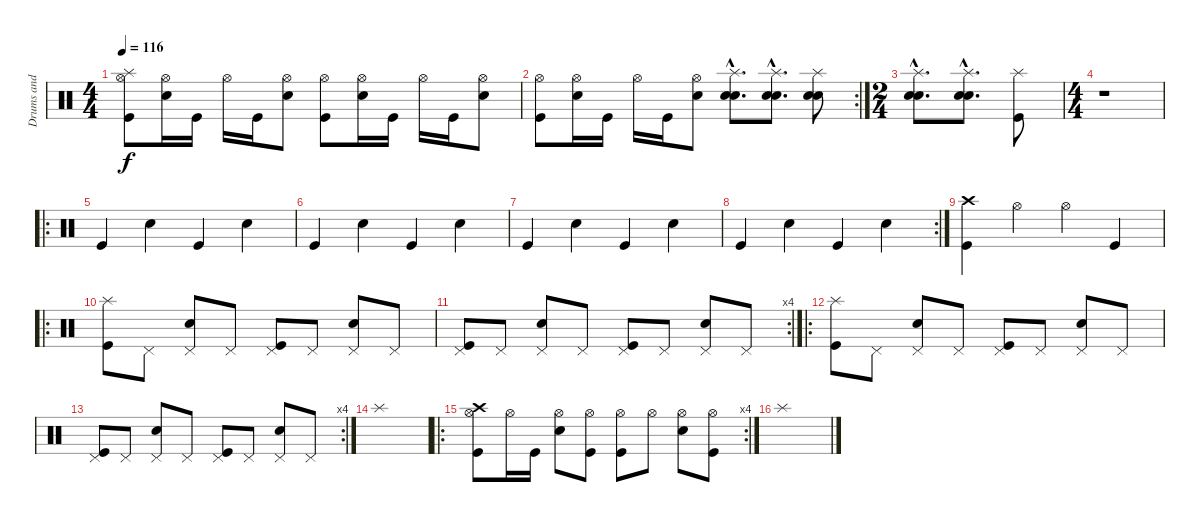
\track ("Drums and Percussions" "Drums and ") {instrument percussion}
\staff {score}
\articulation defaults
\ts (4 4)
\tempo 116
\clef neutral
\ks c
("Splash (hit)" "Hi-Hat (open)" "Kick (hit)").8{dy f} ("Electric Snare (hit)" "Hi-Hat (open)").16 "Kick (hit)".16 "Hi-Hat (open)".16 "Kick (hit)".16 ("Electric Snare (hit)" "Hi-Hat (open)").8 ("Hi-Hat (open)" "Kick (hit)").8 ("Electric Snare (hit)" "Hi-Hat (open)").16 "Kick (hit)".16 "Hi-Hat (open)".16 "Kick (hit)".16 ("Electric Snare (hit)" "Hi-Hat (open)").8 |
\rc 2
("Hi-Hat (open)" "Kick (hit)").8 ("Electric Snare (hit)" "Hi-Hat (open)").16 "Kick (hit)".16 "Hi-Hat (open)".16 "Kick (hit)".16 ("Electric Snare (hit)" "Hi-Hat (open)").8 ("Splash (hit)"{hac} "Electric Snare (hit)"{hac} "Snare (hit) 2"{hac}).8{d} ("Splash (hit)"{hac} "Electric Snare (hit)"{hac} "Snare (hit) 2"{hac}).8{d} ("Splash (hit)" "Electric Snare (hit)" "Snare (hit) 2").8 |
\ts (2 4)
("Splash (hit)"{hac} "Electric Snare (hit)"{hac} "Snare (hit) 2"{hac}).8{d} ("Splash (hit)"{hac} "Electric Snare (hit)"{hac} "Snare (hit) 2"{hac}).8{d} ("Splash (hit)" "Kick (hit)").8 |
\ts (4 4)
r.1 |
\ro "Kick (hit)".4 "Electric Snare (hit)".4 "Kick (hit)".4 "Electric Snare (hit)".4
|
"Kick (hit)".4 "Electric Snare (hit)".4 "Kick (hit)".4 "Electric Snare (hit)".4 |
"Kick (hit)".4 "Electric Snare (hit)".4 "Kick (hit)".4 "Electric Snare (hit)".4 |
\rc 2 "Kick (hit)".4 "Electric Snare (hit)".4 "Kick (hit)".4 "Electric Snare (hit)".4
|
("Crash high (hit)" "Kick (hit)").4 "Hi-Hat (open)".4 "Hi-Hat (open)".4 "Kick (hit)".4 |
\ro
("Splash (hit)" "Kick (hit)").8 "Pedal Hi-Hat (hit)".8 ("Electric Snare (hit)" "Pedal Hi-Hat (hit)").8 "Pedal Hi-Hat (hit)".8 ("Pedal Hi-Hat (hit)" "Kick (hit)").8 "Pedal Hi-Hat (hit)".8 ("Electric Snare (hit)" "Pedal Hi-Hat (hit)").8 "Pedal Hi-Hat (hit)".8 |
\rc 4
("Pedal Hi-Hat (hit)" "Kick (hit)").8 "Pedal Hi-Hat (hit)".8 ("Electric Snare (hit)" "Pedal Hi-Hat (hit)").8 "Pedal Hi-Hat (hit)".8 ("Pedal Hi-Hat (hit)" "Kick (hit)").8 "Pedal Hi-Hat (hit)".8 ("Electric Snare (hit)" "Pedal Hi-Hat (hit)").8 "Pedal Hi-Hat (hit)".8 |
\ro
("Splash (hit)" "Kick (hit)").8 "Pedal Hi-Hat (hit)".8 ("Electric Snare (hit)" "Pedal Hi-Hat (hit)").8 "Pedal Hi-Hat (hit)".8 ("Pedal Hi-Hat (hit)" "Kick (hit)").8 "Pedal Hi-Hat (hit)".8 ("Electric Snare (hit)" "Pedal Hi-Hat (hit)").8 "Pedal Hi-Hat (hit)".8 |
\rc 4
("Pedal Hi-Hat (hit)" "Kick (hit)").8 "Pedal Hi-Hat (hit)".8 ("Electric Snare (hit)" "Pedal Hi-Hat (hit)").8 "Pedal Hi-Hat (hit)".8 ("Pedal Hi-Hat (hit)" "Kick (hit)").8 "Pedal Hi-Hat (hit)".8 ("Electric Snare (hit)" "Pedal Hi-Hat (hit)").8 "Pedal Hi-Hat (hit)".8 |
"Splash (hit)".1 |
\ro
\rc 4
("Crash high (hit)" "Hi-Hat (open)" "Kick (hit)").8 "Hi-Hat (open)".16 "Kick (hit)".16 ("Electric Snare (hit)" "Hi-Hat (open)").8 ("Hi-Hat (open)" "Kick (hit)").8 ("Hi-Hat (open)" "Kick (hit)").8 "Hi-Hat (open)".8 ("Electric Snare (hit)" "Hi-Hat (open)").8 ("Hi-Hat (open)" "Kick (hit)").8 |
"Splash (hit)".1
